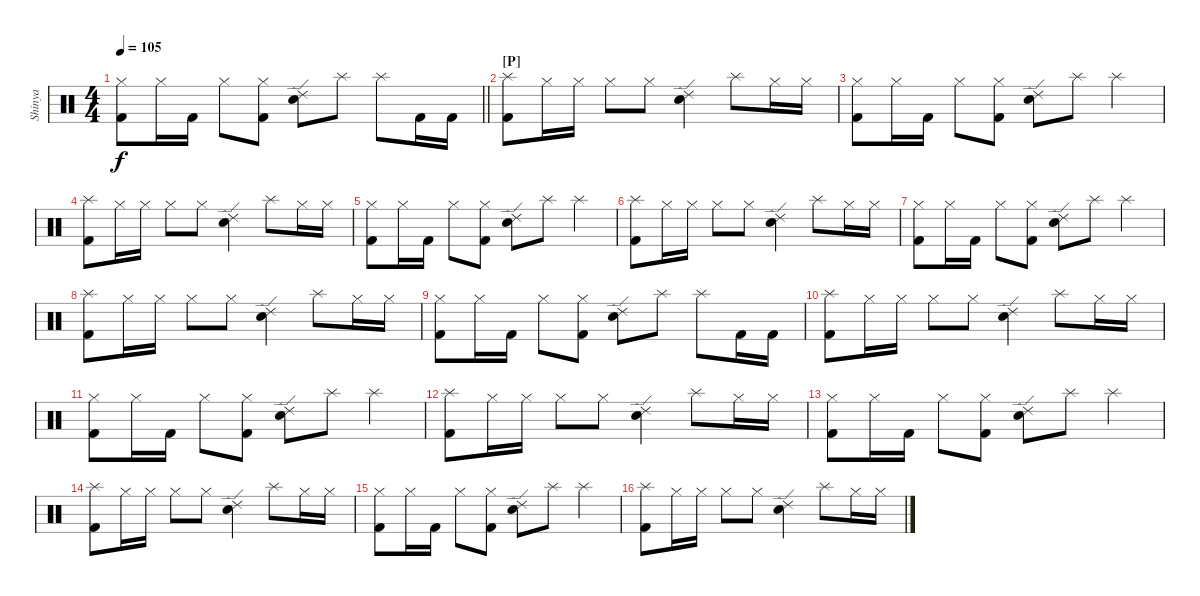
\track ("Shinya" "Shinya") {instrument percussion}
\staff {score}
\articulation defaults
\ts (4 4)
\tempo 105
\clef neutral
\barLineRight lightlight
\ks c
("Hi-Hat (closed)" "Kick (hit) 2").8{dy f} "Hi-Hat (closed)".16 "Kick (hit) 2".16 "Hi-Hat (closed)".8 ("Hi-Hat (closed)" "Kick (hit) 2").8 ("Ride (edge) 2" "Snare (hit) 2").8 "Splash (hit)".8 "Splash (hit)".8 "Kick (hit) 2".16 "Kick (hit) 2".16 |
\section ("" "[P]")
("Splash (hit)" "Kick (hit) 2").8 "Hi-Hat (closed)".16 "Hi-Hat (closed)".16 "Hi-Hat (closed)".8 "Hi-Hat (closed)".8 ("Ride (edge) 2" "Snare (hit) 2").4 "Splash (hit)".8 "Hi-Hat (closed)".16 "Hi-Hat (closed)".16 |
("Hi-Hat (closed)" "Kick (hit) 2").8 "Hi-Hat (closed)".16 "Kick (hit) 2".16 "Hi-Hat (closed)".8 ("Hi-Hat (closed)" "Kick (hit) 2").8 ("Ride (edge) 2" "Snare (hit) 2").8 "Splash (hit)".8 "Splash (hit)".4 |
("Splash (hit)" "Kick (hit) 2").8 "Hi-Hat (closed)".16 "Hi-Hat (closed)".16 "Hi-Hat (closed)".8 "Hi-Hat (closed)".8 ("Ride (edge) 2" "Snare (hit) 2").4 "Splash (hit)".8 "Hi-Hat (closed)".16 "Hi-Hat (closed)".16 |
("Hi-Hat (closed)" "Kick (hit) 2").8 "Hi-Hat (closed)".16 "Kick (hit) 2".16 "Hi-Hat (closed)".8 ("Hi-Hat (closed)" "Kick (hit) 2").8 ("Ride (edge) 2" "Snare (hit) 2").8 "Splash (hit)".8 "Splash (hit)".4 |
("Splash (hit)" "Kick (hit) 2").8 "Hi-Hat (closed)".16 "Hi-Hat (closed)".16 "Hi-Hat (closed)".8 "Hi-Hat (closed)".8 ("Ride (edge) 2" "Snare (hit) 2").4 "Splash (hit)".8 "Hi-Hat (closed)".16 "Hi-Hat (closed)".16 |
("Hi-Hat (closed)" "Kick (hit) 2").8 "Hi-Hat (closed)".16 "Kick (hit) 2".16 "Hi-Hat (closed)".8 ("Hi-Hat (closed)" "Kick (hit) 2").8 ("Ride (edge) 2" "Snare (hit) 2").8 "Splash (hit)".8 "Splash (hit)".4 |
("Splash (hit)" "Kick (hit) 2").8 "Hi-Hat (closed)".16 "Hi-Hat (closed)".16 "Hi-Hat (closed)".8 "Hi-Hat (closed)".8 ("Ride (edge) 2" "Snare (hit) 2").4 "Splash (hit)".8 "Hi-Hat (closed)".16 "Hi-Hat (closed)".16 |
("Hi-Hat (closed)" "Kick (hit) 2").8 "Hi-Hat (closed)".16 "Kick (hit) 2".16 "Hi-Hat (closed)".8 ("Hi-Hat (closed)" "Kick (hit) 2").8 ("Ride (edge) 2" "Snare (hit) 2").8 "Splash (hit)".8 "Splash (hit)".8 "Kick (hit) 2".16 "Kick (hit) 2".16 |
("Splash (hit)" "Kick (hit) 2").8 "Hi-Hat (closed)".16 "Hi-Hat (closed)".16 "Hi-Hat (closed)".8 "Hi-Hat (closed)".8 ("Ride (edge) 2" "Snare (hit) 2").4 "Splash (hit)".8 "Hi-Hat (closed)".16 "Hi-Hat (closed)".16 |
("Hi-Hat (closed)" "Kick (hit) 2").8 "Hi-Hat (closed)".16 "Kick (hit) 2".16 "Hi-Hat (closed)".8 ("Hi-Hat (closed)" "Kick (hit) 2").8 ("Ride (edge) 2" "Snare (hit) 2").8 "Splash (hit)".8 "Splash (hit)".4 |
("Splash (hit)" "Kick (hit) 2").8 "Hi-Hat (closed)".16 "Hi-Hat (closed)".16 "Hi-Hat (closed)".8 "Hi-Hat (closed)".8 ("Ride (edge) 2" "Snare (hit) 2").4 "Splash (hit)".8 "Hi-Hat (closed)".16 "Hi-Hat (closed)".16 |
("Hi-Hat (closed)" "Kick (hit) 2").8 "Hi-Hat (closed)".16 "Kick (hit) 2".16 "Hi-Hat (closed)".8 ("Hi-Hat (closed)" "Kick (hit) 2").8 ("Ride (edge) 2" "Snare (hit) 2").8 "Splash (hit)".8 "Splash (hit)".4 |
("Splash (hit)" "Kick (hit) 2").8 "Hi-Hat (closed)".16 "Hi-Hat (closed)".16 "Hi-Hat (closed)".8 "Hi-Hat (closed)".8 ("Ride (edge) 2" "Snare (hit) 2").4 "Splash (hit)".8 "Hi-Hat (closed)".16 "Hi-Hat (closed)".16 |
("Hi-Hat (closed)" "Kick (hit) 2").8 "Hi-Hat (closed)".16 "Kick (hit) 2".16 "Hi-Hat (closed)".8 ("Hi-Hat (closed)" "Kick (hit) 2").8 ("Ride (edge) 2" "Snare (hit) 2").8 "Splash (hit)".8 "Splash (hit)".4 |
("Splash (hit)" "Kick (hit) 2").8 "Hi-Hat (closed)".16 "Hi-Hat (closed)".16 "Hi-Hat (closed)".8 "Hi-Hat (closed)".8 ("Ride (edge) 2" "Snare (hit) 2").4 "Splash (hit)".8 "Hi-Hat (closed)".16 "Hi-Hat (closed)".16
